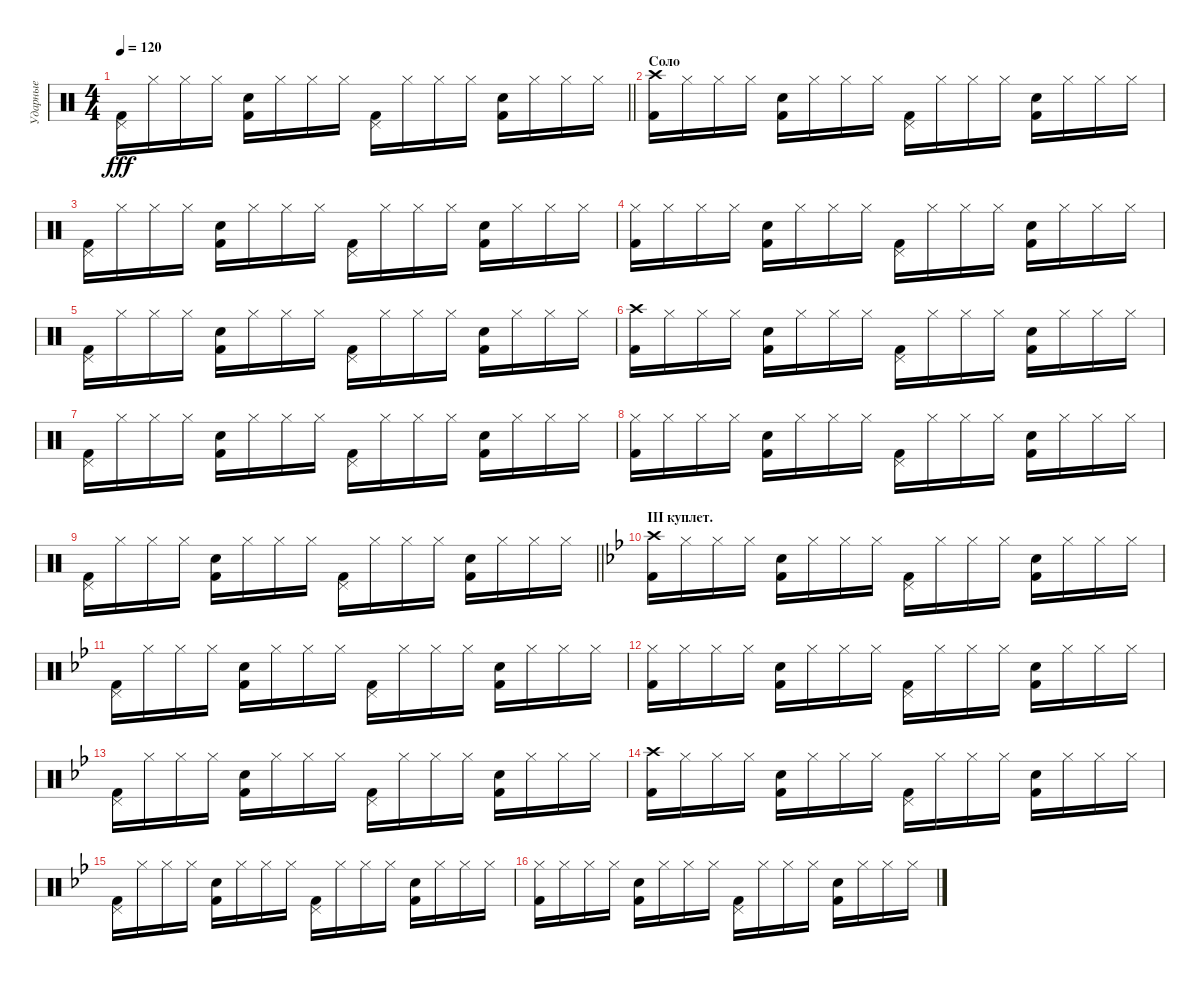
\track ("Ударные" "Ударные") {instrument percussion}
\staff {score}
\articulation defaults
\ts (4 4)
\tempo 120
\clef neutral
\barLineRight lightlight
\ks c
("Pedal Hi-Hat (hit)" "Kick (hit) 2").16{dy fff} "Hi-Hat (closed)".16 "Hi-Hat (closed)".16 "Hi-Hat (closed)".16 ("Snare (hit) 2" "Kick (hit) 2").16 "Hi-Hat (closed)".16 "Hi-Hat (closed)".16 "Hi-Hat (closed)".16 ("Pedal Hi-Hat (hit)" "Kick (hit) 2").16 "Hi-Hat (closed)".16 "Hi-Hat (closed)".16 "Hi-Hat (closed)".16 ("Snare (hit) 2" "Kick (hit) 2").16 "Hi-Hat (closed)".16 "Hi-Hat (closed)".16 "Hi-Hat (closed)".16 |
\section ("" "Соло")
("Crash high (hit)" "Kick (hit) 2").16 "Hi-Hat (closed)".16 "Hi-Hat (closed)".16 "Hi-Hat (closed)".16 ("Snare (hit) 2" "Kick (hit) 2").16 "Hi-Hat (closed)".16 "Hi-Hat (closed)".16 "Hi-Hat (closed)".16 ("Pedal Hi-Hat (hit)" "Kick (hit) 2").16 "Hi-Hat (closed)".16 "Hi-Hat (closed)".16 "Hi-Hat (closed)".16 ("Snare (hit) 2" "Kick (hit) 2").16 "Hi-Hat (closed)".16 "Hi-Hat (closed)".16 "Hi-Hat (closed)".16 |
("Pedal Hi-Hat (hit)" "Kick (hit) 2").16 "Hi-Hat (closed)".16 "Hi-Hat (closed)".16 "Hi-Hat (closed)".16 ("Snare (hit) 2" "Kick (hit) 2").16 "Hi-Hat (closed)".16 "Hi-Hat (closed)".16 "Hi-Hat (closed)".16 ("Pedal Hi-Hat (hit)" "Kick (hit) 2").16 "Hi-Hat (closed)".16 "Hi-Hat (closed)".16 "Hi-Hat (closed)".16 ("Snare (hit) 2" "Kick (hit) 2").16 "Hi-Hat (closed)".16 "Hi-Hat (closed)".16 "Hi-Hat (closed)".16 |
("Hi-Hat (closed)" "Kick (hit) 2").16 "Hi-Hat (closed)".16 "Hi-Hat (closed)".16 "Hi-Hat (closed)".16 ("Snare (hit) 2" "Kick (hit) 2").16 "Hi-Hat (closed)".16 "Hi-Hat (closed)".16 "Hi-Hat (closed)".16 ("Pedal Hi-Hat (hit)" "Kick (hit) 2").16 "Hi-Hat (closed)".16 "Hi-Hat (closed)".16 "Hi-Hat (closed)".16 ("Snare (hit) 2" "Kick (hit) 2").16 "Hi-Hat (closed)".16 "Hi-Hat (closed)".16 "Hi-Hat (closed)".16 |
("Pedal Hi-Hat (hit)" "Kick (hit) 2").16 "Hi-Hat (closed)".16 "Hi-Hat (closed)".16 "Hi-Hat (closed)".16 ("Snare (hit) 2" "Kick (hit) 2").16 "Hi-Hat (closed)".16 "Hi-Hat (closed)".16 "Hi-Hat (closed)".16 ("Pedal Hi-Hat (hit)" "Kick (hit) 2").16 "Hi-Hat (closed)".16 "Hi-Hat (closed)".16 "Hi-Hat (closed)".16 ("Snare (hit) 2" "Kick (hit) 2").16 "Hi-Hat (closed)".16 "Hi-Hat (closed)".16 "Hi-Hat (closed)".16 |
("Crash high (hit)" "Kick (hit) 2").16 "Hi-Hat (closed)".16 "Hi-Hat (closed)".16 "Hi-Hat (closed)".16 ("Snare (hit) 2" "Kick (hit) 2").16 "Hi-Hat (closed)".16 "Hi-Hat (closed)".16 "Hi-Hat (closed)".16 ("Pedal Hi-Hat (hit)" "Kick (hit) 2").16 "Hi-Hat (closed)".16 "Hi-Hat (closed)".16 "Hi-Hat (closed)".16 ("Snare (hit) 2" "Kick (hit) 2").16 "Hi-Hat (closed)".16 "Hi-Hat (closed)".16 "Hi-Hat (closed)".16 |
("Pedal Hi-Hat (hit)" "Kick (hit) 2").16 "Hi-Hat (closed)".16 "Hi-Hat (closed)".16 "Hi-Hat (closed)".16 ("Snare (hit) 2" "Kick (hit) 2").16 "Hi-Hat (closed)".16 "Hi-Hat (closed)".16 "Hi-Hat (closed)".16 ("Pedal Hi-Hat (hit)" "Kick (hit) 2").16 "Hi-Hat (closed)".16 "Hi-Hat (closed)".16 "Hi-Hat (closed)".16 ("Snare (hit) 2" "Kick (hit) 2").16 "Hi-Hat (closed)".16 "Hi-Hat (closed)".16 "Hi-Hat (closed)".16 |
("Hi-Hat (closed)" "Kick (hit) 2").16 "Hi-Hat (closed)".16 "Hi-Hat (closed)".16 "Hi-Hat (closed)".16 ("Snare (hit) 2" "Kick (hit) 2").16 "Hi-Hat (closed)".16 "Hi-Hat (closed)".16 "Hi-Hat (closed)".16 ("Pedal Hi-Hat (hit)" "Kick (hit) 2").16 "Hi-Hat (closed)".16 "Hi-Hat (closed)".16 "Hi-Hat (closed)".16 ("Snare (hit) 2" "Kick (hit) 2").16 "Hi-Hat (closed)".16 "Hi-Hat (closed)".16 "Hi-Hat (closed)".16 |
\barLineRight lightlight
("Pedal Hi-Hat (hit)" "Kick (hit) 2").16 "Hi-Hat (closed)".16 "Hi-Hat (closed)".16 "Hi-Hat (closed)".16 ("Snare (hit) 2" "Kick (hit) 2").16 "Hi-Hat (closed)".16 "Hi-Hat (closed)".16 "Hi-Hat (closed)".16 ("Pedal Hi-Hat (hit)" "Kick (hit) 2").16 "Hi-Hat (closed)".16 "Hi-Hat (closed)".16 "Hi-Hat (closed)".16 ("Snare (hit) 2" "Kick (hit) 2").16 "Hi-Hat (closed)".16 "Hi-Hat (closed)".16 "Hi-Hat (closed)".16 |
\section ("" "III куплет.")
\ks gminor
("Crash high (hit)" "Kick (hit) 2").16 "Hi-Hat (closed)".16 "Hi-Hat (closed)".16 "Hi-Hat (closed)".16 ("Snare (hit) 2" "Kick (hit) 2").16 "Hi-Hat (closed)".16 "Hi-Hat (closed)".16 "Hi-Hat (closed)".16 ("Pedal Hi-Hat (hit)" "Kick (hit) 2").16 "Hi-Hat (closed)".16 "Hi-Hat (closed)".16 "Hi-Hat (closed)".16 ("Snare (hit) 2" "Kick (hit) 2").16 "Hi-Hat (closed)".16 "Hi-Hat (closed)".16 "Hi-Hat (closed)".16 |
("Pedal Hi-Hat (hit)" "Kick (hit) 2").16 "Hi-Hat (closed)".16 "Hi-Hat (closed)".16 "Hi-Hat (closed)".16 ("Snare (hit) 2" "Kick (hit) 2").16 "Hi-Hat (closed)".16 "Hi-Hat (closed)".16 "Hi-Hat (closed)".16 ("Pedal Hi-Hat (hit)" "Kick (hit) 2").16 "Hi-Hat (closed)".16 "Hi-Hat (closed)".16 "Hi-Hat (closed)".16 ("Snare (hit) 2" "Kick (hit) 2").16 "Hi-Hat (closed)".16 "Hi-Hat (closed)".16 "Hi-Hat (closed)".16 |
("Hi-Hat (closed)" "Kick (hit) 2").16 "Hi-Hat (closed)".16 "Hi-Hat (closed)".16 "Hi-Hat (closed)".16 ("Snare (hit) 2" "Kick (hit) 2").16 "Hi-Hat (closed)".16 "Hi-Hat (closed)".16 "Hi-Hat (closed)".16 ("Pedal Hi-Hat (hit)" "Kick (hit) 2").16 "Hi-Hat (closed)".16 "Hi-Hat (closed)".16 "Hi-Hat (closed)".16 ("Snare (hit) 2" "Kick (hit) 2").16 "Hi-Hat (closed)".16 "Hi-Hat (closed)".16 "Hi-Hat (closed)".16 |
("Pedal Hi-Hat (hit)" "Kick (hit) 2").16 "Hi-Hat (closed)".16 "Hi-Hat (closed)".16 "Hi-Hat (closed)".16 ("Snare (hit) 2" "Kick (hit) 2").16 "Hi-Hat (closed)".16 "Hi-Hat (closed)".16 "Hi-Hat (closed)".16 ("Pedal Hi-Hat (hit)" "Kick (hit) 2").16 "Hi-Hat (closed)".16 "Hi-Hat (closed)".16 "Hi-Hat (closed)".16 ("Snare (hit) 2" "Kick (hit) 2").16 "Hi-Hat (closed)".16 "Hi-Hat (closed)".16 "Hi-Hat (closed)".16 |
("Crash high (hit)" "Kick (hit) 2").16 "Hi-Hat (closed)".16 "Hi-Hat (closed)".16 "Hi-Hat (closed)".16 ("Snare (hit) 2" "Kick (hit) 2").16 "Hi-Hat (closed)".16 "Hi-Hat (closed)".16 "Hi-Hat (closed)".16 ("Pedal Hi-Hat (hit)" "Kick (hit) 2").16 "Hi-Hat (closed)".16 "Hi-Hat (closed)".16 "Hi-Hat (closed)".16 ("Snare (hit) 2" "Kick (hit) 2").16 "Hi-Hat (closed)".16 "Hi-Hat (closed)".16 "Hi-Hat (closed)".16 |
("Pedal Hi-Hat (hit)" "Kick (hit) 2").16 "Hi-Hat (closed)".16 "Hi-Hat (closed)".16 "Hi-Hat (closed)".16 ("Snare (hit) 2" "Kick (hit) 2").16 "Hi-Hat (closed)".16 "Hi-Hat (closed)".16 "Hi-Hat (closed)".16 ("Pedal Hi-Hat (hit)" "Kick (hit) 2").16 "Hi-Hat (closed)".16 "Hi-Hat (closed)".16 "Hi-Hat (closed)".16 ("Snare (hit) 2" "Kick (hit) 2").16 "Hi-Hat (closed)".16 "Hi-Hat (closed)".16 "Hi-Hat (closed)".16 |
("Hi-Hat (closed)" "Kick (hit) 2").16 "Hi-Hat (closed)".16 "Hi-Hat (closed)".16 "Hi-Hat (closed)".16 ("Snare (hit) 2" "Kick (hit) 2").16 "Hi-Hat (closed)".16 "Hi-Hat (closed)".16 "Hi-Hat (closed)".16 ("Pedal Hi-Hat (hit)" "Kick (hit) 2").16 "Hi-Hat (closed)".16 "Hi-Hat (closed)".16 "Hi-Hat (closed)".16 ("Snare (hit) 2" "Kick (hit) 2").16 "Hi-Hat (closed)".16 "Hi-Hat (closed)".16 "Hi-Hat (closed)".16
